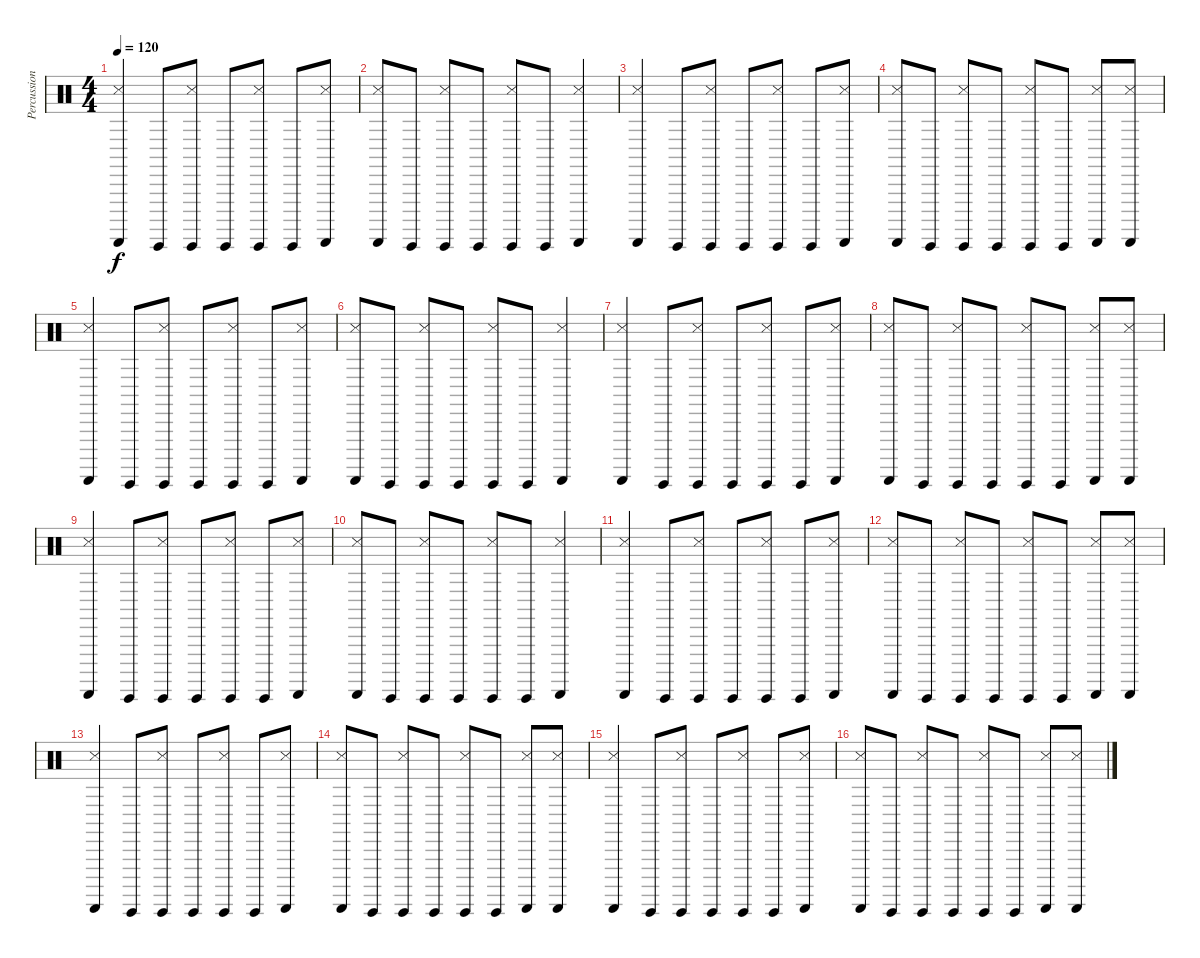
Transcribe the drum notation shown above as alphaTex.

\track ("Percussions" "Percussion") {instrument percussion}
\staff {score}
\articulation defaults
\ts (4 4)
\tempo 120
\clef neutral
\ks c
("Guiro (scrap-return)" "Snare (side stick) 3").4{dy f} "Guiro (hit)".8 ("Guiro (hit)" "Snare (side stick) 3").8 "Guiro (hit)".8 ("Guiro (hit)" "Snare (side stick) 3").8 "Guiro (hit)".8 ("Guiro (scrap-return)" "Snare (side stick) 3").8 |
("Guiro (scrap-return)" "Snare (side stick) 3").8 "Guiro (hit)".8 ("Guiro (hit)" "Snare (side stick) 3").8 "Guiro (hit)".8 ("Guiro (hit)" "Snare (side stick) 3").8 "Guiro (hit)".8 ("Guiro (scrap-return)" "Snare (side stick) 3").4 |
("Guiro (scrap-return)" "Snare (side stick) 3").4 "Guiro (hit)".8 ("Guiro (hit)" "Snare (side stick) 3").8 "Guiro (hit)".8 ("Guiro (hit)" "Snare (side stick) 3").8 "Guiro (hit)".8 ("Guiro (scrap-return)" "Snare (side stick) 3").8 |
("Guiro (scrap-return)" "Snare (side stick) 3").8 "Guiro (hit)".8 ("Guiro (hit)" "Snare (side stick) 3").8 "Guiro (hit)".8 ("Guiro (hit)" "Snare (side stick) 3").8 "Guiro (hit)".8 ("Guiro (scrap-return)" "Snare (side stick) 3").8 ("Guiro (scrap-return)" "Snare (side stick) 3").8 |
("Guiro (scrap-return)" "Snare (side stick) 3").4 "Guiro (hit)".8 ("Guiro (hit)" "Snare (side stick) 3").8 "Guiro (hit)".8 ("Guiro (hit)" "Snare (side stick) 3").8 "Guiro (hit)".8 ("Guiro (scrap-return)" "Snare (side stick) 3").8 |
("Guiro (scrap-return)" "Snare (side stick) 3").8 "Guiro (hit)".8 ("Guiro (hit)" "Snare (side stick) 3").8 "Guiro (hit)".8 ("Guiro (hit)" "Snare (side stick) 3").8 "Guiro (hit)".8 ("Guiro (scrap-return)" "Snare (side stick) 3").4 |
("Guiro (scrap-return)" "Snare (side stick) 3").4 "Guiro (hit)".8 ("Guiro (hit)" "Snare (side stick) 3").8 "Guiro (hit)".8 ("Guiro (hit)" "Snare (side stick) 3").8 "Guiro (hit)".8 ("Guiro (scrap-return)" "Snare (side stick) 3").8 |
("Guiro (scrap-return)" "Snare (side stick) 3").8 "Guiro (hit)".8 ("Guiro (hit)" "Snare (side stick) 3").8 "Guiro (hit)".8 ("Guiro (hit)" "Snare (side stick) 3").8 "Guiro (hit)".8 ("Guiro (scrap-return)" "Snare (side stick) 3").8 ("Guiro (scrap-return)" "Snare (side stick) 3").8 |
("Guiro (scrap-return)" "Snare (side stick) 3").4 "Guiro (hit)".8 ("Guiro (hit)" "Snare (side stick) 3").8 "Guiro (hit)".8 ("Guiro (hit)" "Snare (side stick) 3").8 "Guiro (hit)".8 ("Guiro (scrap-return)" "Snare (side stick) 3").8 |
("Guiro (scrap-return)" "Snare (side stick) 3").8 "Guiro (hit)".8 ("Guiro (hit)" "Snare (side stick) 3").8 "Guiro (hit)".8 ("Guiro (hit)" "Snare (side stick) 3").8 "Guiro (hit)".8 ("Guiro (scrap-return)" "Snare (side stick) 3").4 |
("Guiro (scrap-return)" "Snare (side stick) 3").4 "Guiro (hit)".8 ("Guiro (hit)" "Snare (side stick) 3").8 "Guiro (hit)".8 ("Guiro (hit)" "Snare (side stick) 3").8 "Guiro (hit)".8 ("Guiro (scrap-return)" "Snare (side stick) 3").8 |
("Guiro (scrap-return)" "Snare (side stick) 3").8 "Guiro (hit)".8 ("Guiro (hit)" "Snare (side stick) 3").8 "Guiro (hit)".8 ("Guiro (hit)" "Snare (side stick) 3").8 "Guiro (hit)".8 ("Guiro (scrap-return)" "Snare (side stick) 3").8 ("Guiro (scrap-return)" "Snare (side stick) 3").8 |
("Guiro (scrap-return)" "Snare (side stick) 3").4 "Guiro (hit)".8 ("Guiro (hit)" "Snare (side stick) 3").8 "Guiro (hit)".8 ("Guiro (hit)" "Snare (side stick) 3").8 "Guiro (hit)".8 ("Guiro (scrap-return)" "Snare (side stick) 3").8 |
("Guiro (scrap-return)" "Snare (side stick) 3").8 "Guiro (hit)".8 ("Guiro (hit)" "Snare (side stick) 3").8 "Guiro (hit)".8 ("Guiro (hit)" "Snare (side stick) 3").8 "Guiro (hit)".8 ("Guiro (scrap-return)" "Snare (side stick) 3").8 ("Guiro (scrap-return)" "Snare (side stick) 3").8 |
("Guiro (scrap-return)" "Snare (side stick) 3").4 "Guiro (hit)".8 ("Guiro (hit)" "Snare (side stick) 3").8 "Guiro (hit)".8 ("Guiro (hit)" "Snare (side stick) 3").8 "Guiro (hit)".8 ("Guiro (scrap-return)" "Snare (side stick) 3").8 |
("Guiro (scrap-return)" "Snare (side stick) 3").8 "Guiro (hit)".8 ("Guiro (hit)" "Snare (side stick) 3").8 "Guiro (hit)".8 ("Guiro (hit)" "Snare (side stick) 3").8 "Guiro (hit)".8 ("Guiro (scrap-return)" "Snare (side stick) 3").8 ("Guiro (scrap-return)" "Snare (side stick) 3").8
